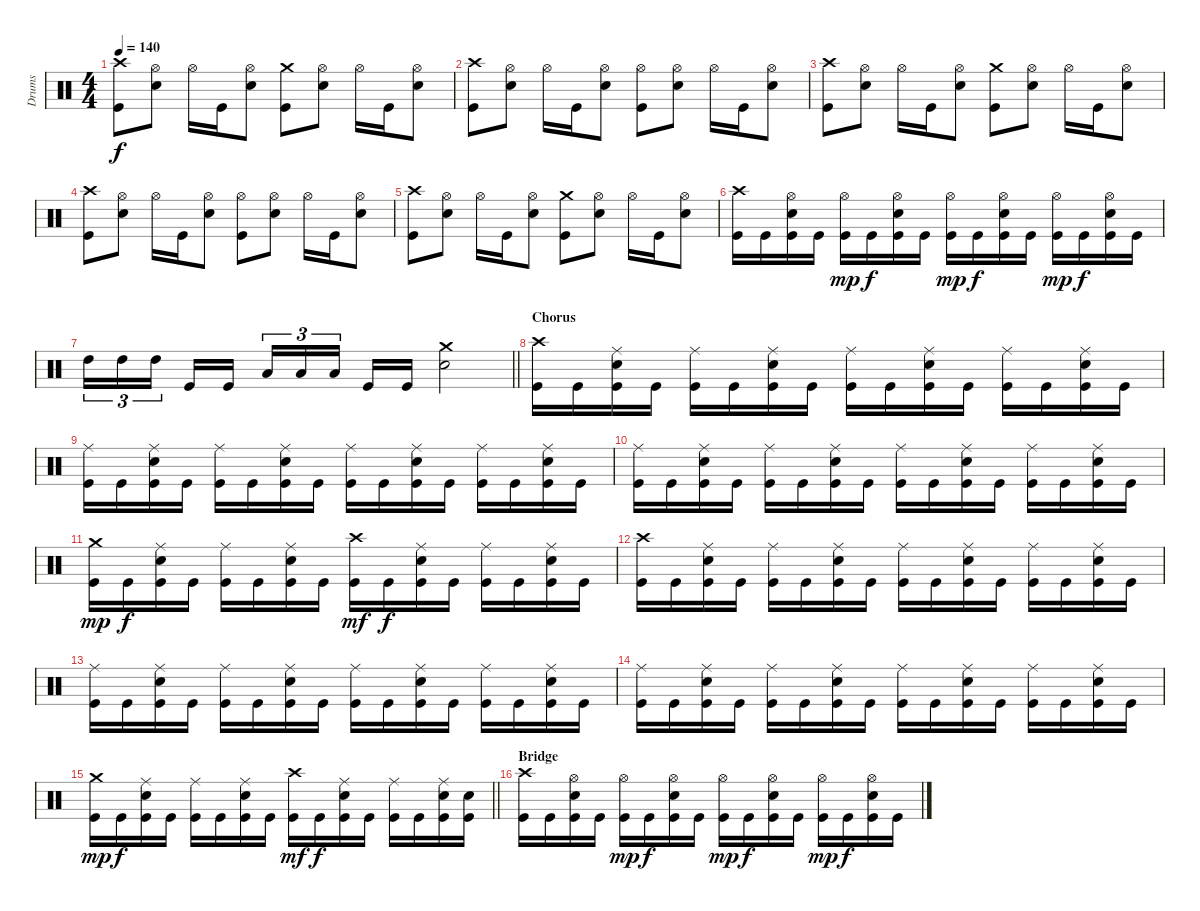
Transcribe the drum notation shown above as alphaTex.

\track ("Drums" "Drums") {instrument percussion}
\staff {score}
\articulation defaults
\ts (4 4)
\tempo 140
\clef neutral
\ks c
("Crash high (hit)" "Kick (hit)").8{dy f} ("Hi-Hat (open)" "Electric Snare (hit)").8 "Hi-Hat (open)".16 "Kick (hit)".16 ("Hi-Hat (open)" "Electric Snare (hit)").8 ("Crash medium (hit)" "Kick (hit)").8 ("Hi-Hat (open)" "Electric Snare (hit)").8 "Hi-Hat (open)".16 "Kick (hit)".16 ("Hi-Hat (open)" "Electric Snare (hit)").8 |
("Crash high (hit)" "Kick (hit)").8 ("Hi-Hat (open)" "Electric Snare (hit)").8 "Hi-Hat (open)".16 "Kick (hit)".16 ("Hi-Hat (open)" "Electric Snare (hit)").8 ("Hi-Hat (open)" "Kick (hit)").8 ("Hi-Hat (open)" "Electric Snare (hit)").8 "Hi-Hat (open)".16 "Kick (hit)".16 ("Hi-Hat (open)" "Electric Snare (hit)").8 |
("Crash high (hit)" "Kick (hit)").8 ("Hi-Hat (open)" "Electric Snare (hit)").8 "Hi-Hat (open)".16 "Kick (hit)".16 ("Hi-Hat (open)" "Electric Snare (hit)").8 ("Crash medium (hit)" "Kick (hit)").8 ("Hi-Hat (open)" "Electric Snare (hit)").8 "Hi-Hat (open)".16 "Kick (hit)".16 ("Hi-Hat (open)" "Electric Snare (hit)").8 |
("Crash high (hit)" "Kick (hit)").8 ("Hi-Hat (open)" "Electric Snare (hit)").8 "Hi-Hat (open)".16 "Kick (hit)".16 ("Hi-Hat (open)" "Electric Snare (hit)").8 ("Hi-Hat (open)" "Kick (hit)").8 ("Hi-Hat (open)" "Electric Snare (hit)").8 "Hi-Hat (open)".16 "Kick (hit)".16 ("Hi-Hat (open)" "Electric Snare (hit)").8 |
("Crash high (hit)" "Kick (hit)").8 ("Hi-Hat (open)" "Electric Snare (hit)").8 "Hi-Hat (open)".16 "Kick (hit)".16 ("Hi-Hat (open)" "Electric Snare (hit)").8 ("Crash medium (hit)" "Kick (hit)").8 ("Hi-Hat (open)" "Electric Snare (hit)").8 "Hi-Hat (open)".16 "Kick (hit)".16 ("Hi-Hat (open)" "Electric Snare (hit)").8 |
("Crash high (hit)" "Kick (hit)").16 "Kick (hit)".16 ("Hi-Hat (open)" "Electric Snare (hit)" "Kick (hit)").16 "Kick (hit)".16 ("Hi-Hat (open)" "Kick (hit)").16{dy mp} "Kick (hit)".16{dy f} ("Hi-Hat (open)" "Electric Snare (hit)" "Kick (hit)").16 "Kick (hit)".16 ("Hi-Hat (open)" "Kick (hit)").16{dy mp} "Kick (hit)".16{dy f} ("Hi-Hat (open)" "Electric Snare (hit)" "Kick (hit)").16 "Kick (hit)".16 ("Hi-Hat (open)" "Kick (hit)").16{dy mp} "Kick (hit)".16{dy f} ("Hi-Hat (open)" "Electric Snare (hit)" "Kick (hit)").16 "Kick (hit)".16 |
\barLineRight lightlight "High Tom (hit)".16{tu (3 2)} "High Tom (hit)".16{tu (3 2)} "High Tom (hit)".16{tu (3 2)} "Kick (hit)".16 "Kick (hit)".16 "Low Tom (hit)".16{tu (3 2)} "Low Tom (hit)".16{tu (3 2)} "Low Tom (hit)".16{tu (3 2)} "Kick (hit)".16 "Kick (hit)".16
("Crash medium (hit)" "Electric Snare (hit)").2 |
\section ("" "Chorus")
("Crash high (hit)" "Kick (hit)").16 "Kick (hit)".16 ("Ride (middle)" "Electric Snare (hit)" "Kick (hit)").16 "Kick (hit)".16 ("Ride (middle)" "Kick (hit)").16 "Kick (hit)".16 ("Ride (middle)" "Electric Snare (hit)" "Kick (hit)").16 "Kick (hit)".16 ("Ride (middle)" "Kick (hit)").16 "Kick (hit)".16 ("Ride (middle)" "Electric Snare (hit)" "Kick (hit)").16 "Kick (hit)".16 ("Ride (middle)" "Kick (hit)").16 "Kick (hit)".16 ("Ride (middle)" "Electric Snare (hit)" "Kick (hit)").16 "Kick (hit)".16 |
("Ride (middle)" "Kick (hit)").16 "Kick (hit)".16 ("Ride (middle)" "Electric Snare (hit)" "Kick (hit)").16 "Kick (hit)".16 ("Ride (middle)" "Kick (hit)").16 "Kick (hit)".16 ("Ride (middle)" "Electric Snare (hit)" "Kick (hit)").16 "Kick (hit)".16 ("Ride (middle)" "Kick (hit)").16 "Kick (hit)".16 ("Ride (middle)" "Electric Snare (hit)" "Kick (hit)").16 "Kick (hit)".16 ("Ride (middle)" "Kick (hit)").16 "Kick (hit)".16 ("Ride (middle)" "Electric Snare (hit)" "Kick (hit)").16 "Kick (hit)".16 |
("Ride (middle)" "Kick (hit)").16 "Kick (hit)".16 ("Ride (middle)" "Electric Snare (hit)" "Kick (hit)").16 "Kick (hit)".16 ("Ride (middle)" "Kick (hit)").16 "Kick (hit)".16 ("Ride (middle)" "Electric Snare (hit)" "Kick (hit)").16 "Kick (hit)".16 ("Ride (middle)" "Kick (hit)").16 "Kick (hit)".16 ("Ride (middle)" "Electric Snare (hit)" "Kick (hit)").16 "Kick (hit)".16 ("Ride (middle)" "Kick (hit)").16 "Kick (hit)".16 ("Ride (middle)" "Electric Snare (hit)" "Kick (hit)").16 "Kick (hit)".16 |
("Crash medium (hit)" "Kick (hit)").16{dy mp} "Kick (hit)".16{dy f} ("Ride (middle)" "Electric Snare (hit)" "Kick (hit)").16 "Kick (hit)".16 ("Ride (middle)" "Kick (hit)").16 "Kick (hit)".16 ("Ride (middle)" "Electric Snare (hit)" "Kick (hit)").16 "Kick (hit)".16 ("Crash high (hit)" "Kick (hit)").16{dy mf} "Kick (hit)".16{dy f} ("Ride (middle)" "Electric Snare (hit)" "Kick (hit)").16 "Kick (hit)".16 ("Ride (middle)" "Kick (hit)").16 "Kick (hit)".16 ("Ride (middle)" "Electric Snare (hit)" "Kick (hit)").16 "Kick (hit)".16 |
("Crash high (hit)" "Kick (hit)").16 "Kick (hit)".16 ("Ride (middle)" "Electric Snare (hit)" "Kick (hit)").16 "Kick (hit)".16 ("Ride (middle)" "Kick (hit)").16 "Kick (hit)".16 ("Ride (middle)" "Electric Snare (hit)" "Kick (hit)").16 "Kick (hit)".16 ("Ride (middle)" "Kick (hit)").16 "Kick (hit)".16 ("Ride (middle)" "Electric Snare (hit)" "Kick (hit)").16 "Kick (hit)".16 ("Ride (middle)" "Kick (hit)").16 "Kick (hit)".16 ("Ride (middle)" "Electric Snare (hit)" "Kick (hit)").16 "Kick (hit)".16 |
("Ride (middle)" "Kick (hit)").16 "Kick (hit)".16 ("Ride (middle)" "Electric Snare (hit)" "Kick (hit)").16 "Kick (hit)".16 ("Ride (middle)" "Kick (hit)").16 "Kick (hit)".16 ("Ride (middle)" "Electric Snare (hit)" "Kick (hit)").16 "Kick (hit)".16 ("Ride (middle)" "Kick (hit)").16 "Kick (hit)".16 ("Ride (middle)" "Electric Snare (hit)" "Kick (hit)").16 "Kick (hit)".16 ("Ride (middle)" "Kick (hit)").16 "Kick (hit)".16 ("Ride (middle)" "Electric Snare (hit)" "Kick (hit)").16 "Kick (hit)".16 |
("Ride (middle)" "Kick (hit)").16 "Kick (hit)".16 ("Ride (middle)" "Electric Snare (hit)" "Kick (hit)").16 "Kick (hit)".16 ("Ride (middle)" "Kick (hit)").16 "Kick (hit)".16 ("Ride (middle)" "Electric Snare (hit)" "Kick (hit)").16 "Kick (hit)".16 ("Ride (middle)" "Kick (hit)").16 "Kick (hit)".16 ("Ride (middle)" "Electric Snare (hit)" "Kick (hit)").16 "Kick (hit)".16 ("Ride (middle)" "Kick (hit)").16 "Kick (hit)".16 ("Ride (middle)" "Electric Snare (hit)" "Kick (hit)").16 "Kick (hit)".16 |
\barLineRight lightlight
("Crash medium (hit)" "Kick (hit)").16{dy mp} "Kick (hit)".16{dy f} ("Ride (middle)" "Electric Snare (hit)" "Kick (hit)").16 "Kick (hit)".16 ("Ride (middle)" "Kick (hit)").16 "Kick (hit)".16 ("Ride (middle)" "Electric Snare (hit)" "Kick (hit)").16 "Kick (hit)".16 ("Crash high (hit)" "Kick (hit)").16{dy mf} "Kick (hit)".16{dy f} ("Ride (middle)" "Electric Snare (hit)" "Kick (hit)").16 "Kick (hit)".16 ("Ride (middle)" "Kick (hit)").16 "Kick (hit)".16 ("Ride (middle)" "Electric Snare (hit)" "Kick (hit)").16 ("Electric Snare (hit)" "Kick (hit)").16 |
\section ("" "Bridge")
("Crash high (hit)" "Kick (hit)").16 "Kick (hit)".16 ("Hi-Hat (open)" "Electric Snare (hit)" "Kick (hit)").16 "Kick (hit)".16 ("Hi-Hat (open)" "Kick (hit)").16{dy mp} "Kick (hit)".16{dy f} ("Hi-Hat (open)" "Electric Snare (hit)" "Kick (hit)").16 "Kick (hit)".16 ("Hi-Hat (open)" "Kick (hit)").16{dy mp} "Kick (hit)".16{dy f} ("Hi-Hat (open)" "Electric Snare (hit)" "Kick (hit)").16 "Kick (hit)".16 ("Hi-Hat (open)" "Kick (hit)").16{dy mp} "Kick (hit)".16{dy f} ("Hi-Hat (open)" "Electric Snare (hit)" "Kick (hit)").16 "Kick (hit)".16
